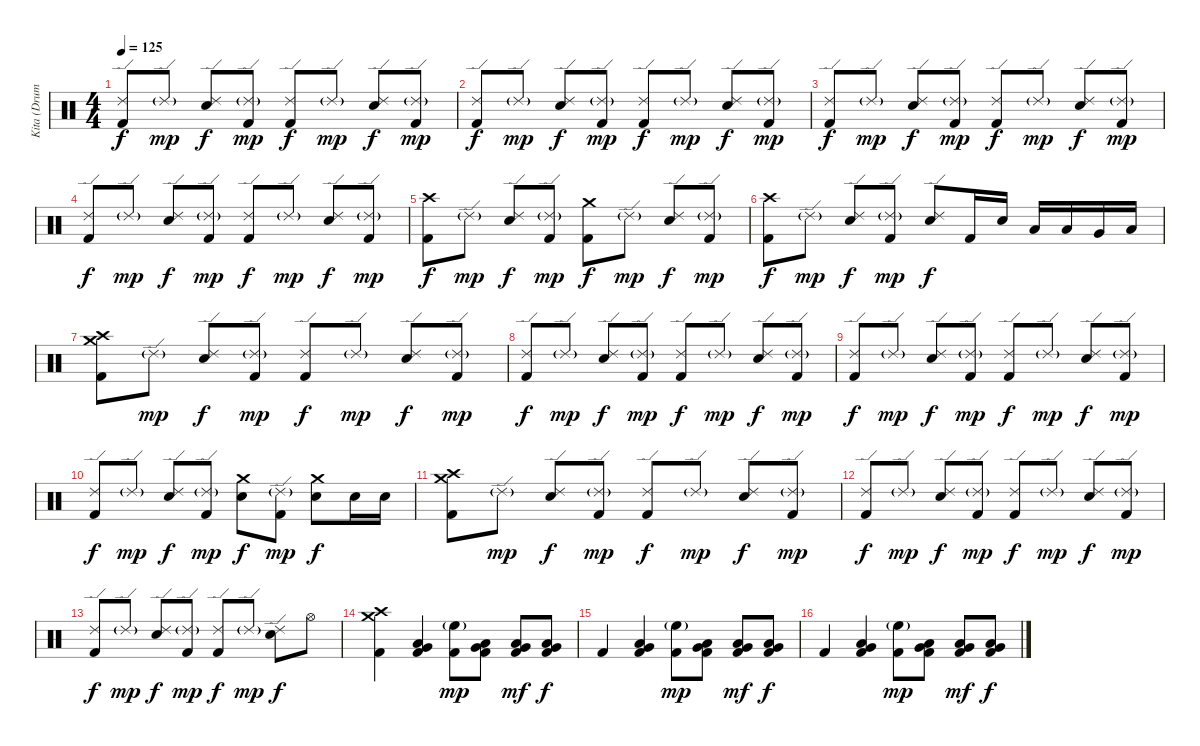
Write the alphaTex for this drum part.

\track ("Kita (Drums)" "Kita (Drum") {instrument percussion}
\staff {score}
\articulation defaults
\ts (4 4)
\tempo 125
\clef neutral
\ks c
("Ride (edge) 2" "Kick (hit) 2").8{dy f} "Ride (edge) 2"{g}.8{dy mp} ("Ride (edge) 2" "Electric Snare (hit)").8{dy f} ("Ride (edge) 2"{g} "Kick (hit) 2").8{dy mp} ("Ride (edge) 2" "Kick (hit) 2").8{dy f} "Ride (edge) 2"{g}.8{dy mp} ("Ride (edge) 2" "Electric Snare (hit)").8{dy f} ("Ride (edge) 2"{g} "Kick (hit) 2").8{dy mp} |
("Ride (edge) 2" "Kick (hit) 2").8{dy f} "Ride (edge) 2"{g}.8{dy mp} ("Ride (edge) 2" "Electric Snare (hit)").8{dy f} ("Ride (edge) 2"{g} "Kick (hit) 2").8{dy mp} ("Ride (edge) 2" "Kick (hit) 2").8{dy f} "Ride (edge) 2"{g}.8{dy mp} ("Ride (edge) 2" "Electric Snare (hit)").8{dy f} ("Ride (edge) 2"{g} "Kick (hit) 2").8{dy mp} |
("Ride (edge) 2" "Kick (hit) 2").8{dy f} "Ride (edge) 2"{g}.8{dy mp} ("Ride (edge) 2" "Electric Snare (hit)").8{dy f} ("Ride (edge) 2"{g} "Kick (hit) 2").8{dy mp} ("Ride (edge) 2" "Kick (hit) 2").8{dy f} "Ride (edge) 2"{g}.8{dy mp} ("Ride (edge) 2" "Electric Snare (hit)").8{dy f} ("Ride (edge) 2"{g} "Kick (hit) 2").8{dy mp} |
("Ride (edge) 2" "Kick (hit) 2").8{dy f} "Ride (edge) 2"{g}.8{dy mp} ("Ride (edge) 2" "Electric Snare (hit)").8{dy f} ("Ride (edge) 2"{g} "Kick (hit) 2").8{dy mp} ("Ride (edge) 2" "Kick (hit) 2").8{dy f} "Ride (edge) 2"{g}.8{dy mp} ("Ride (edge) 2" "Electric Snare (hit)").8{dy f} ("Ride (edge) 2"{g} "Kick (hit) 2").8{dy mp} |
("Crash high (hit)" "Kick (hit) 2").8{dy f} "Ride (edge) 2"{g}.8{dy mp} ("Ride (edge) 2" "Electric Snare (hit)").8{dy f} ("Ride (edge) 2"{g} "Kick (hit) 2").8{dy mp} ("Crash medium (hit)" "Kick (hit) 2").8{dy f} "Ride (edge) 2"{g}.8{dy mp} ("Ride (edge) 2" "Electric Snare (hit)").8{dy f} ("Ride (edge) 2"{g} "Kick (hit) 2").8{dy mp} |
("Crash high (hit)" "Kick (hit) 2").8{dy f} "Ride (edge) 2"{g}.8{dy mp} ("Ride (edge) 2" "Electric Snare (hit)").8{dy f} ("Ride (edge) 2"{g} "Kick (hit) 2").8{dy mp} ("Ride (edge) 2" "Electric Snare (hit)").8{dy f} "Kick (hit) 2".16 "Electric Snare (hit)".16 "Low Tom (hit)".16 "Low Tom (hit)".16 "Very Low Tom (hit)".16 "Low Floor Tom (hit)".16 |
("Crash medium (hit)" "Crash high (hit)" "Kick (hit) 2").8 "Ride (edge) 2"{g}.8{dy mp} ("Ride (edge) 2" "Electric Snare (hit)").8{dy f} ("Ride (edge) 2"{g} "Kick (hit) 2").8{dy mp} ("Ride (edge) 2" "Kick (hit) 2").8{dy f} "Ride (edge) 2"{g}.8{dy mp} ("Ride (edge) 2" "Electric Snare (hit)").8{dy f} ("Ride (edge) 2"{g} "Kick (hit) 2").8{dy mp} |
("Ride (edge) 2" "Kick (hit) 2").8{dy f} "Ride (edge) 2"{g}.8{dy mp} ("Ride (edge) 2" "Electric Snare (hit)").8{dy f} ("Ride (edge) 2"{g} "Kick (hit) 2").8{dy mp} ("Ride (edge) 2" "Kick (hit) 2").8{dy f} "Ride (edge) 2"{g}.8{dy mp} ("Ride (edge) 2" "Electric Snare (hit)").8{dy f} ("Ride (edge) 2"{g} "Kick (hit) 2").8{dy mp} |
("Ride (edge) 2" "Kick (hit) 2").8{dy f} "Ride (edge) 2"{g}.8{dy mp} ("Ride (edge) 2" "Electric Snare (hit)").8{dy f} ("Ride (edge) 2"{g} "Kick (hit) 2").8{dy mp} ("Ride (edge) 2" "Kick (hit) 2").8{dy f} "Ride (edge) 2"{g}.8{dy mp} ("Ride (edge) 2" "Electric Snare (hit)").8{dy f} ("Ride (edge) 2"{g} "Kick (hit) 2").8{dy mp} |
("Ride (edge) 2" "Kick (hit) 2").8{dy f} "Ride (edge) 2"{g}.8{dy mp} ("Ride (edge) 2" "Electric Snare (hit)").8{dy f} ("Ride (edge) 2"{g} "Kick (hit) 2").8{dy mp} ("Crash medium (hit)" "Electric Snare (hit)").8{dy f} ("Ride (edge) 2"{g} "Kick (hit) 2").8{dy mp} ("Crash medium (hit)" "Electric Snare (hit)").8{dy f} "Electric Snare (hit)".16 "Electric Snare (hit)".16 |
("Crash medium (hit)" "Crash high (hit)" "Kick (hit) 2").8 "Ride (edge) 2"{g}.8{dy mp} ("Ride (edge) 2" "Electric Snare (hit)").8{dy f} ("Ride (edge) 2"{g} "Kick (hit) 2").8{dy mp} ("Ride (edge) 2" "Kick (hit) 2").8{dy f} "Ride (edge) 2"{g}.8{dy mp} ("Ride (edge) 2" "Electric Snare (hit)").8{dy f} ("Ride (edge) 2"{g} "Kick (hit) 2").8{dy mp} |
("Ride (edge) 2" "Kick (hit) 2").8{dy f} "Ride (edge) 2"{g}.8{dy mp} ("Ride (edge) 2" "Electric Snare (hit)").8{dy f} ("Ride (edge) 2"{g} "Kick (hit) 2").8{dy mp} ("Ride (edge) 2" "Kick (hit) 2").8{dy f} "Ride (edge) 2"{g}.8{dy mp} ("Ride (edge) 2" "Electric Snare (hit)").8{dy f} ("Ride (edge) 2"{g} "Kick (hit) 2").8{dy mp} |
("Ride (edge) 2" "Kick (hit) 2").8{dy f} "Ride (edge) 2"{g}.8{dy mp} ("Ride (edge) 2" "Electric Snare (hit)").8{dy f} ("Ride (edge) 2"{g} "Kick (hit) 2").8{dy mp} ("Ride (edge) 2" "Kick (hit) 2").8{dy f} "Ride (edge) 2"{g}.8{dy mp} ("Ride (edge) 2" "Electric Snare (hit)").8{dy f} "Hi-Hat (open)".8 |
("Crash medium (hit)" "Crash high (hit)" "Kick (hit) 2").4 ("Very Low Tom (hit)" "Low Tom (hit)" "Kick (hit) 2").4 ("High Floor Tom (hit)"{g} "Kick (hit) 2").8{dy mp} ("Very Low Tom (hit)" "Low Tom (hit)" "Kick (hit) 2").8 ("Very Low Tom (hit)" "Low Tom (hit)" "Kick (hit) 2").8{dy mf} ("Low Floor Tom (hit)" "Very Low Tom (hit)" "Kick (hit) 2").8{dy f} |
"Kick (hit) 2".4 ("Very Low Tom (hit)" "Low Tom (hit)" "Kick (hit) 2").4 ("High Floor Tom (hit)"{g} "Kick (hit) 2").8{dy mp} ("Very Low Tom (hit)" "Low Tom (hit)" "Kick (hit) 2").8 ("Very Low Tom (hit)" "Low Tom (hit)" "Kick (hit) 2").8{dy mf} ("Low Floor Tom (hit)" "Very Low Tom (hit)" "Kick (hit) 2").8{dy f} |
"Kick (hit) 2".4 ("Very Low Tom (hit)" "Low Tom (hit)" "Kick (hit) 2").4 ("High Floor Tom (hit)"{g} "Kick (hit) 2").8{dy mp} ("Very Low Tom (hit)" "Low Tom (hit)" "Kick (hit) 2").8 ("Very Low Tom (hit)" "Low Tom (hit)" "Kick (hit) 2").8{dy mf} ("Low Floor Tom (hit)" "Very Low Tom (hit)" "Kick (hit) 2").8{dy f}
